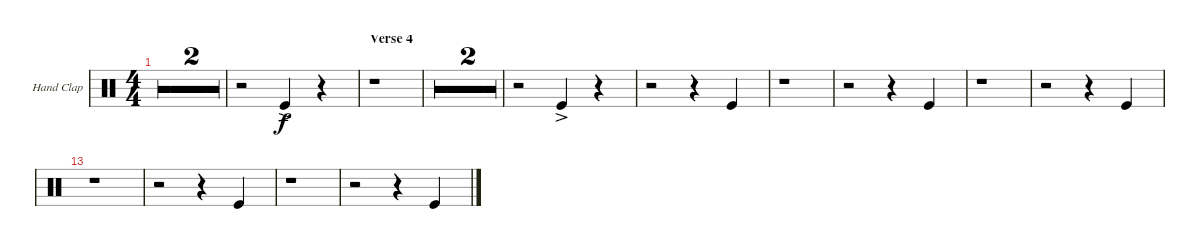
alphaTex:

\defaultSystemsLayout 4
\bracketExtendMode groupsimilarinstruments
\useSystemSignSeparator
\multiBarRest
\multiTrackTrackNamePolicy allsystems
\firstSystemTrackNameMode fullname
\firstSystemTrackNameOrientation horizontal
\otherSystemsTrackNameOrientation horizontal
\defaultBarNumberDisplay FirstOfSystem
\track ("Hand Clap" "H-Clap") {multiBarRest instrument percussion}
\staff {score}
\articulation defaults
\ts (4 4)
\tempo 119
\clef neutral
\ks aminor
r.1{dy f} |
r.1 |
r.2 "Kick (hit)"{ac}.4 r.4 |
\section ("" "Verse 4")
r.1 |
r.1 |
r.1 |
r.2 "Kick (hit)"{ac}.4 r.4 |
r.2 r.4 "Kick (hit)".4 |
r.1 |
r.2 r.4 "Kick (hit)".4 |
r.1 |
r.2 r.4 "Kick (hit)".4 |
r.1 |
r.2 r.4 "Kick (hit)".4 |
r.1 |
r.2 r.4 "Kick (hit)".4
